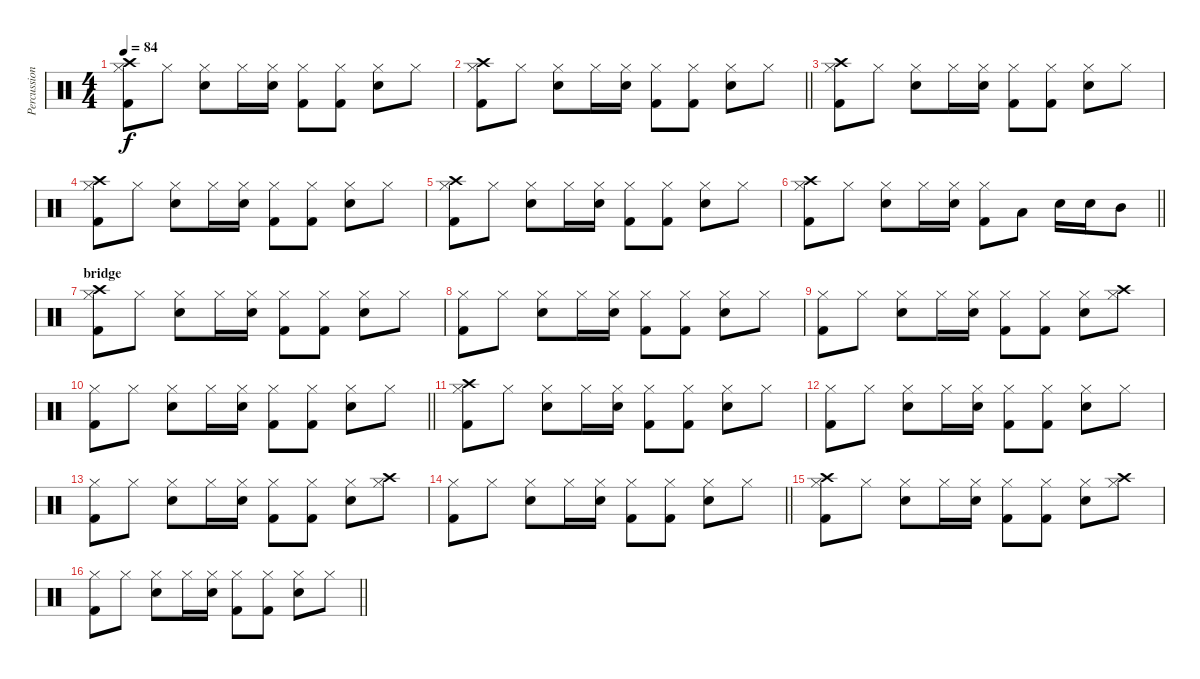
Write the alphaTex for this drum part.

\track ("Percussioni" "Percussion") {instrument percussion}
\staff {score}
\articulation defaults
\ts (4 4)
\tempo 84
\clef neutral
\ks c
("Hi-Hat (closed)" "Kick (hit) 2" "Crash high (hit)").8{dy f} "Hi-Hat (closed)".8 ("Hi-Hat (closed)" "Electric Snare (hit)").8 "Hi-Hat (closed)".16 ("Hi-Hat (closed)" "Electric Snare (hit)").16 ("Hi-Hat (closed)" "Kick (hit) 2").8 ("Hi-Hat (closed)" "Kick (hit) 2").8 ("Hi-Hat (closed)" "Electric Snare (hit)").8 "Hi-Hat (closed)".8 |
\barLineRight lightlight
("Hi-Hat (closed)" "Kick (hit) 2" "Crash high (hit)").8 "Hi-Hat (closed)".8 ("Hi-Hat (closed)" "Electric Snare (hit)").8 "Hi-Hat (closed)".16 ("Hi-Hat (closed)" "Electric Snare (hit)").16 ("Hi-Hat (closed)" "Kick (hit) 2").8 ("Hi-Hat (closed)" "Kick (hit) 2").8 ("Hi-Hat (closed)" "Electric Snare (hit)").8 "Hi-Hat (closed)".8 |
("Hi-Hat (closed)" "Kick (hit) 2" "Crash high (hit)").8 "Hi-Hat (closed)".8 ("Hi-Hat (closed)" "Electric Snare (hit)").8 "Hi-Hat (closed)".16 ("Hi-Hat (closed)" "Electric Snare (hit)").16 ("Hi-Hat (closed)" "Kick (hit) 2").8 ("Hi-Hat (closed)" "Kick (hit) 2").8 ("Hi-Hat (closed)" "Electric Snare (hit)").8 "Hi-Hat (closed)".8 |
("Hi-Hat (closed)" "Kick (hit) 2" "Crash high (hit)").8 "Hi-Hat (closed)".8 ("Hi-Hat (closed)" "Electric Snare (hit)").8 "Hi-Hat (closed)".16 ("Hi-Hat (closed)" "Electric Snare (hit)").16 ("Hi-Hat (closed)" "Kick (hit) 2").8 ("Hi-Hat (closed)" "Kick (hit) 2").8 ("Hi-Hat (closed)" "Electric Snare (hit)").8 "Hi-Hat (closed)".8 |
("Hi-Hat (closed)" "Kick (hit) 2" "Crash high (hit)").8 "Hi-Hat (closed)".8 ("Hi-Hat (closed)" "Electric Snare (hit)").8 "Hi-Hat (closed)".16 ("Hi-Hat (closed)" "Electric Snare (hit)").16 ("Hi-Hat (closed)" "Kick (hit) 2").8 ("Hi-Hat (closed)" "Kick (hit) 2").8 ("Hi-Hat (closed)" "Electric Snare (hit)").8 "Hi-Hat (closed)".8 |
\barLineRight lightlight
("Hi-Hat (closed)" "Kick (hit) 2" "Crash high (hit)").8 "Hi-Hat (closed)".8 ("Hi-Hat (closed)" "Electric Snare (hit)").8 "Hi-Hat (closed)".16 ("Hi-Hat (closed)" "Electric Snare (hit)").16 ("Hi-Hat (closed)" "Kick (hit) 2").8 "Low Tom (hit)".8 "Electric Snare (hit)".16 "Electric Snare (hit)".16 "Mid Tom (hit)".8 |
\section ("" "bridge")
("Hi-Hat (closed)" "Kick (hit) 2" "Crash high (hit)").8 "Hi-Hat (closed)".8 ("Hi-Hat (closed)" "Electric Snare (hit)").8 "Hi-Hat (closed)".16 ("Hi-Hat (closed)" "Electric Snare (hit)").16 ("Hi-Hat (closed)" "Kick (hit) 2").8 ("Hi-Hat (closed)" "Kick (hit) 2").8 ("Hi-Hat (closed)" "Electric Snare (hit)").8 "Hi-Hat (closed)".8 |
("Hi-Hat (closed)" "Kick (hit) 2").8 "Hi-Hat (closed)".8 ("Hi-Hat (closed)" "Electric Snare (hit)").8 "Hi-Hat (closed)".16 ("Hi-Hat (closed)" "Electric Snare (hit)").16 ("Hi-Hat (closed)" "Kick (hit) 2").8 ("Hi-Hat (closed)" "Kick (hit) 2").8 ("Hi-Hat (closed)" "Electric Snare (hit)").8 "Hi-Hat (closed)".8 |
("Hi-Hat (closed)" "Kick (hit) 2").8 "Hi-Hat (closed)".8 ("Hi-Hat (closed)" "Electric Snare (hit)").8 "Hi-Hat (closed)".16 ("Hi-Hat (closed)" "Electric Snare (hit)").16 ("Hi-Hat (closed)" "Kick (hit) 2").8 ("Hi-Hat (closed)" "Kick (hit) 2").8 ("Hi-Hat (closed)" "Electric Snare (hit)").8 ("Hi-Hat (closed)" "Crash high (hit)").8 |
\barLineRight lightlight
("Hi-Hat (closed)" "Kick (hit) 2").8 "Hi-Hat (closed)".8 ("Hi-Hat (closed)" "Electric Snare (hit)").8 "Hi-Hat (closed)".16 ("Hi-Hat (closed)" "Electric Snare (hit)").16 ("Hi-Hat (closed)" "Kick (hit) 2").8 ("Hi-Hat (closed)" "Kick (hit) 2").8 ("Hi-Hat (closed)" "Electric Snare (hit)").8 "Hi-Hat (closed)".8 |
("Hi-Hat (closed)" "Kick (hit) 2" "Crash high (hit)").8 "Hi-Hat (closed)".8 ("Hi-Hat (closed)" "Electric Snare (hit)").8 "Hi-Hat (closed)".16 ("Hi-Hat (closed)" "Electric Snare (hit)").16 ("Hi-Hat (closed)" "Kick (hit) 2").8 ("Hi-Hat (closed)" "Kick (hit) 2").8 ("Hi-Hat (closed)" "Electric Snare (hit)").8 "Hi-Hat (closed)".8 |
("Hi-Hat (closed)" "Kick (hit) 2").8 "Hi-Hat (closed)".8 ("Hi-Hat (closed)" "Electric Snare (hit)").8 "Hi-Hat (closed)".16 ("Hi-Hat (closed)" "Electric Snare (hit)").16 ("Hi-Hat (closed)" "Kick (hit) 2").8 ("Hi-Hat (closed)" "Kick (hit) 2").8 ("Hi-Hat (closed)" "Electric Snare (hit)").8 "Hi-Hat (closed)".8 |
("Hi-Hat (closed)" "Kick (hit) 2").8 "Hi-Hat (closed)".8 ("Hi-Hat (closed)" "Electric Snare (hit)").8 "Hi-Hat (closed)".16 ("Hi-Hat (closed)" "Electric Snare (hit)").16 ("Hi-Hat (closed)" "Kick (hit) 2").8 ("Hi-Hat (closed)" "Kick (hit) 2").8 ("Hi-Hat (closed)" "Electric Snare (hit)").8 ("Hi-Hat (closed)" "Crash high (hit)").8 |
\barLineRight lightlight
("Hi-Hat (closed)" "Kick (hit) 2").8 "Hi-Hat (closed)".8 ("Hi-Hat (closed)" "Electric Snare (hit)").8 "Hi-Hat (closed)".16 ("Hi-Hat (closed)" "Electric Snare (hit)").16 ("Hi-Hat (closed)" "Kick (hit) 2").8 ("Hi-Hat (closed)" "Kick (hit) 2").8 ("Hi-Hat (closed)" "Electric Snare (hit)").8 "Hi-Hat (closed)".8 |
("Hi-Hat (closed)" "Kick (hit) 2" "Crash high (hit)").8 "Hi-Hat (closed)".8 ("Hi-Hat (closed)" "Electric Snare (hit)").8 "Hi-Hat (closed)".16 ("Hi-Hat (closed)" "Electric Snare (hit)").16 ("Hi-Hat (closed)" "Kick (hit) 2").8 ("Hi-Hat (closed)" "Kick (hit) 2").8 ("Hi-Hat (closed)" "Electric Snare (hit)").8 ("Hi-Hat (closed)" "Crash high (hit)").8 |
\barLineRight lightlight
("Hi-Hat (closed)" "Kick (hit) 2").8 "Hi-Hat (closed)".8 ("Hi-Hat (closed)" "Electric Snare (hit)").8 "Hi-Hat (closed)".16 ("Hi-Hat (closed)" "Electric Snare (hit)").16 ("Hi-Hat (closed)" "Kick (hit) 2").8 ("Hi-Hat (closed)" "Kick (hit) 2").8 ("Hi-Hat (closed)" "Electric Snare (hit)").8 "Hi-Hat (closed)".8
